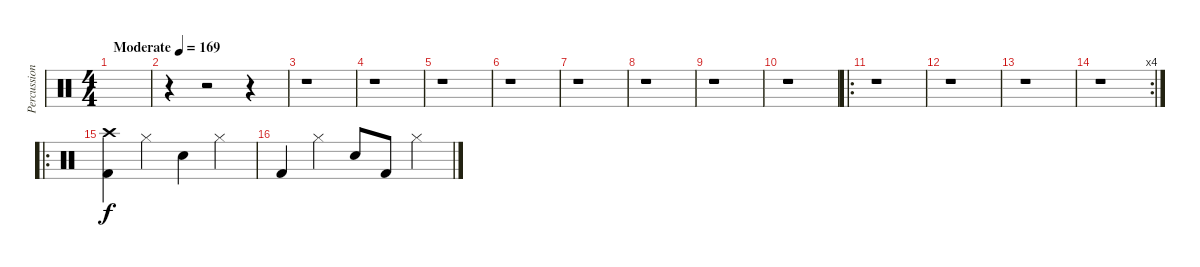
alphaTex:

\track ("Percussion" "Percussion") {instrument percussion}
\staff {score}
\articulation defaults
\ts (4 4)
\tempo (169 "Moderate")
\clef neutral
\ks c
|
r.4 r.2 r.4 |
r.1 |
r.1 |
r.1 |
r.1 |
r.1 |
r.1 |
r.1 |
r.1 |
\ro
r.1 |
r.1 |
r.1 |
\rc 4
r.1 |
\ro
("Crash high (hit)" "Kick (hit) 2").4 "Hi-Hat (closed)".4 "Snare (hit) 2".4 "Hi-Hat (closed)".4 |
"Kick (hit) 2".4 "Hi-Hat (closed)".4 "Snare (hit) 2".8 "Kick (hit) 2".8 "Hi-Hat (closed)".4
